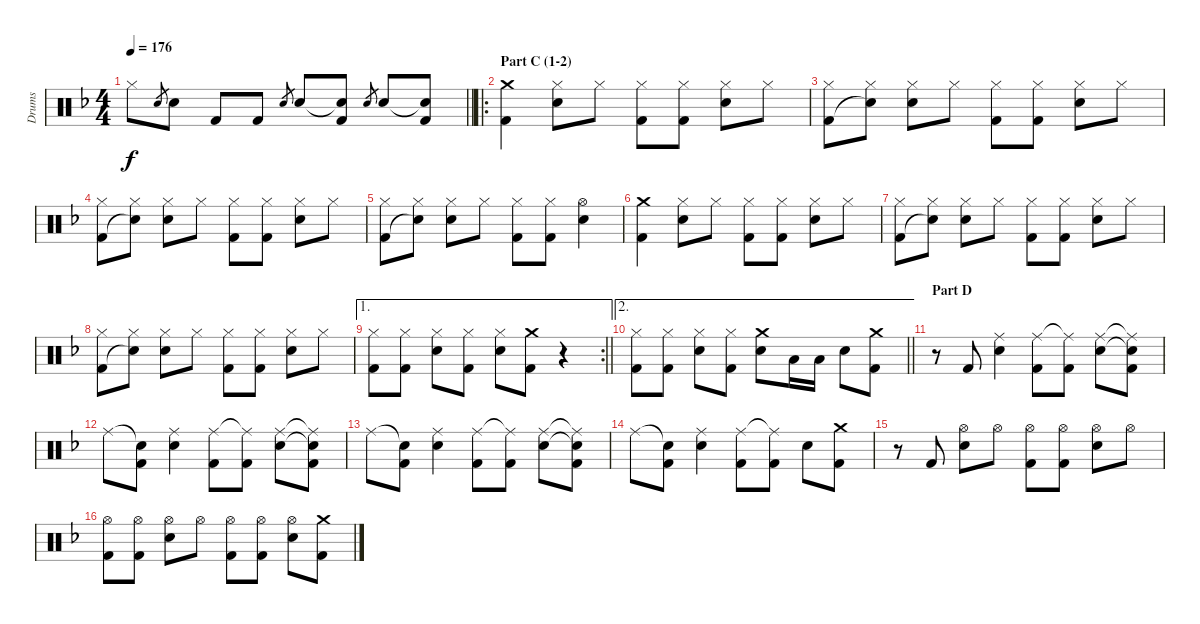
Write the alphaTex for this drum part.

\track ("Drums" "Drums") {instrument percussion}
\staff {score}
\articulation defaults
\ts (4 4)
\tempo 176
\clef neutral
\barLineRight lightlight
\ks f "Hi-Hat (closed)".8{dy f} "Electric Snare (hit)".8{gr} "Electric Snare (hit)".8 "Kick (hit) 2".8 "Kick (hit) 2".8 "Electric Snare (hit)".8{gr} "Electric Snare (hit)".8
("Snare (hit)"{t} "Kick (hit) 2").8 "Electric Snare (hit)".8{gr} "Electric Snare (hit)".8 ("Snare (hit)"{t} "Kick (hit) 2").8 |
\ro
\section ("" "Part C (1-2)")
("Crash medium (hit)" "Kick (hit) 2").4 ("Hi-Hat (closed)" "Electric Snare (hit)").8 "Hi-Hat (closed)".8 ("Hi-Hat (closed)" "Kick (hit) 2").8 ("Hi-Hat (closed)" "Kick (hit) 2").8 ("Hi-Hat (closed)" "Electric Snare (hit)").8 "Hi-Hat (closed)".8 |
("Hi-Hat (closed)" "Kick (hit) 2").8 ("Hi-Hat (closed)" "Snare (hit)"{t}).8 ("Hi-Hat (closed)" "Electric Snare (hit)").8 "Hi-Hat (closed)".8 ("Hi-Hat (closed)" "Kick (hit) 2").8 ("Hi-Hat (closed)" "Kick (hit) 2").8 ("Hi-Hat (closed)" "Electric Snare (hit)").8 "Hi-Hat (closed)".8 |
("Hi-Hat (closed)" "Kick (hit) 2").8 ("Hi-Hat (closed)" "Snare (hit)"{t}).8 ("Hi-Hat (closed)" "Electric Snare (hit)").8 "Hi-Hat (closed)".8 ("Hi-Hat (closed)" "Kick (hit) 2").8 ("Hi-Hat (closed)" "Kick (hit) 2").8 ("Hi-Hat (closed)" "Electric Snare (hit)").8 "Hi-Hat (closed)".8 |
("Hi-Hat (closed)" "Kick (hit) 2").8 ("Hi-Hat (closed)" "Snare (hit)"{t}).8 ("Hi-Hat (closed)" "Electric Snare (hit)").8 "Hi-Hat (closed)".8 ("Hi-Hat (closed)" "Kick (hit) 2").8 ("Hi-Hat (closed)" "Kick (hit) 2").8 ("Hi-Hat (open)" "Electric Snare (hit)").4 |
("Crash medium (hit)" "Kick (hit) 2").4 ("Hi-Hat (closed)" "Electric Snare (hit)").8 "Hi-Hat (closed)".8 ("Hi-Hat (closed)" "Kick (hit) 2").8 ("Hi-Hat (closed)" "Kick (hit) 2").8 ("Hi-Hat (closed)" "Electric Snare (hit)").8 "Hi-Hat (closed)".8 |
("Hi-Hat (closed)" "Kick (hit) 2").8 ("Hi-Hat (closed)" "Snare (hit)"{t}).8 ("Hi-Hat (closed)" "Electric Snare (hit)").8 "Hi-Hat (closed)".8 ("Hi-Hat (closed)" "Kick (hit) 2").8 ("Hi-Hat (closed)" "Kick (hit) 2").8 ("Hi-Hat (closed)" "Electric Snare (hit)").8 "Hi-Hat (closed)".8 |
("Hi-Hat (closed)" "Kick (hit) 2").8 ("Hi-Hat (closed)" "Snare (hit)"{t}).8 ("Hi-Hat (closed)" "Electric Snare (hit)").8 "Hi-Hat (closed)".8 ("Hi-Hat (closed)" "Kick (hit) 2").8 ("Hi-Hat (closed)" "Kick (hit) 2").8 ("Hi-Hat (closed)" "Electric Snare (hit)").8 "Hi-Hat (closed)".8 |
\ae 1
\rc 2
\barLineRight lightlight
("Hi-Hat (closed)" "Kick (hit) 2").8 ("Hi-Hat (closed)" "Kick (hit) 2").8 ("Hi-Hat (closed)" "Electric Snare (hit)").8 ("Hi-Hat (closed)" "Kick (hit) 2").8 ("Hi-Hat (closed)" "Electric Snare (hit)").8 ("Crash medium (hit)" "Kick (hit) 2").8 r.4 |
\ae 2
\barLineRight lightlight
("Hi-Hat (closed)" "Kick (hit) 2").8 ("Hi-Hat (closed)" "Kick (hit) 2").8 ("Hi-Hat (closed)" "Electric Snare (hit)").8 ("Hi-Hat (closed)" "Kick (hit) 2").8 ("Crash medium (hit)" "Electric Snare (hit)").8 "Low Tom (hit)".16 "Low Tom (hit)".16 "Electric Snare (hit)".8 ("Crash medium (hit)" "Kick (hit) 2").8 |
\section ("" "Part D")
r.8 "Kick (hit) 2".8 ("Ride (middle)" "Electric Snare (hit)").4 ("Ride (middle)" "Kick (hit) 2").8 ("Ride (middle)"{t} "Kick (hit) 2").8 ("Ride (middle)" "Electric Snare (hit)").8 ("Ride (middle)"{t} "Snare (hit)"{t} "Kick (hit) 2").8 |
"Ride (middle)".8 ("Snare (hit)"{t} "Kick (hit) 2").8 ("Ride (middle)" "Electric Snare (hit)").4 ("Ride (middle)" "Kick (hit) 2").8 ("Ride (middle)"{t} "Kick (hit) 2").8 ("Ride (middle)" "Electric Snare (hit)").8 ("Ride (middle)"{t} "Snare (hit)"{t} "Kick (hit) 2").8 |
"Ride (middle)".8 ("Snare (hit)"{t} "Kick (hit) 2").8 ("Ride (middle)" "Electric Snare (hit)").4 ("Ride (middle)" "Kick (hit) 2").8 ("Ride (middle)"{t} "Kick (hit) 2").8 ("Ride (middle)" "Electric Snare (hit)").8 ("Ride (middle)"{t} "Snare (hit)"{t} "Kick (hit) 2").8 |
"Ride (middle)".8 ("Snare (hit)"{t} "Kick (hit) 2").8 ("Ride (middle)" "Electric Snare (hit)").4 ("Ride (middle)" "Kick (hit) 2").8 ("Ride (middle)"{t} "Kick (hit) 2").8 "Electric Snare (hit)".8 ("Crash medium (hit)" "Kick (hit) 2").8 |
r.8 "Kick (hit) 2".8 ("Hi-Hat (open)" "Electric Snare (hit)").8 "Hi-Hat (open)".8 ("Hi-Hat (open)" "Kick (hit) 2").8 ("Hi-Hat (open)" "Kick (hit) 2").8 ("Hi-Hat (open)" "Electric Snare (hit)").8 "Hi-Hat (open)".8 |
("Hi-Hat (open)" "Kick (hit) 2").8 ("Hi-Hat (open)" "Kick (hit) 2").8 ("Hi-Hat (open)" "Electric Snare (hit)").8 "Hi-Hat (open)".8 ("Hi-Hat (open)" "Kick (hit) 2").8 ("Hi-Hat (open)" "Kick (hit) 2").8 ("Hi-Hat (open)" "Electric Snare (hit)").8 ("Crash medium (hit)" "Kick (hit) 2").8
